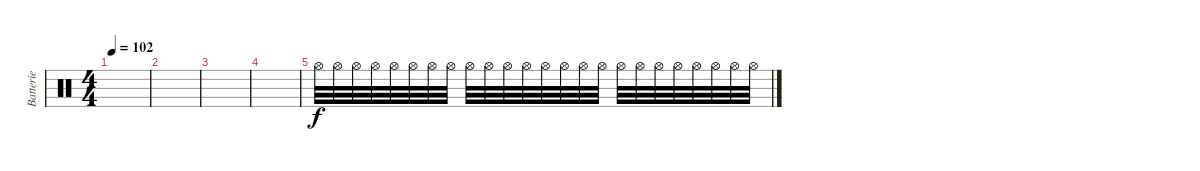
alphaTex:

\track ("Batterie" "Batterie") {instrument percussion}
\staff {score}
\articulation defaults
\ts (4 4)
\tempo 102
\clef neutral
\ks c
|
|
|
|
"Hi-Hat (open)".32 "Hi-Hat (open)".32 "Hi-Hat (open)".32 "Hi-Hat (open)".32 "Hi-Hat (open)".32 "Hi-Hat (open)".32 "Hi-Hat (open)".32 "Hi-Hat (open)".32 "Hi-Hat (open)".32 "Hi-Hat (open)".32 "Hi-Hat (open)".32 "Hi-Hat (open)".32 "Hi-Hat (open)".32 "Hi-Hat (open)".32 "Hi-Hat (open)".32 "Hi-Hat (open)".32 "Hi-Hat (open)".32 "Hi-Hat (open)".32 "Hi-Hat (open)".32 "Hi-Hat (open)".32 "Hi-Hat (open)".32 "Hi-Hat (open)".32 "Hi-Hat (open)".32 "Hi-Hat (open)".32
